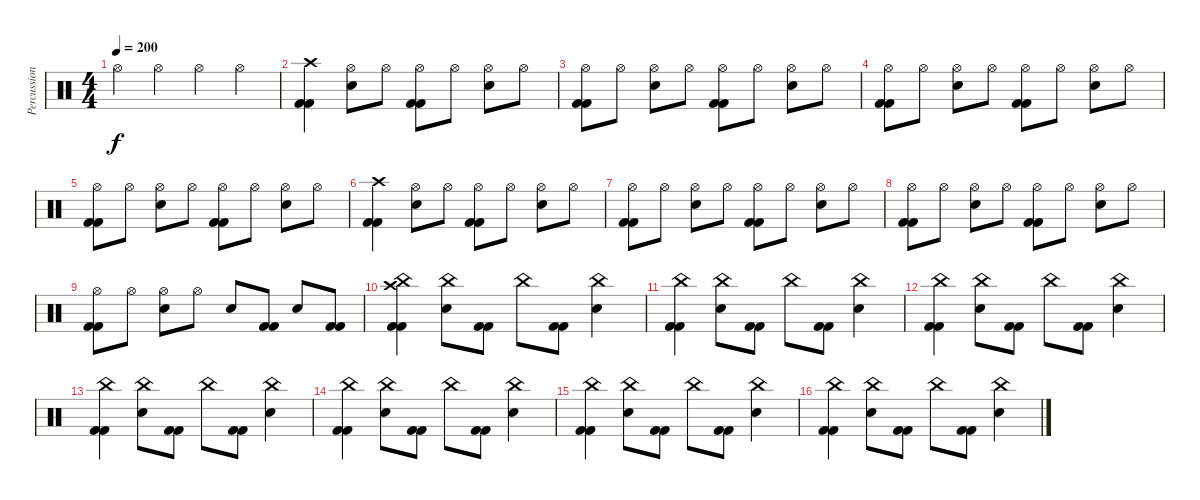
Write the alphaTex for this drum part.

\track ("Percussion" "Percussion") {instrument percussion}
\staff {score}
\articulation defaults
\ts (4 4)
\tempo 200
\clef neutral
\ks c "Hi-Hat (open)".4{dy f} "Hi-Hat (open)".4 "Hi-Hat (open)".4 "Hi-Hat (open)".4
|
("Crash high (hit)" "Kick (hit) 2" "Kick (hit) 2").4 ("Hi-Hat (open)" "Snare (hit) 2").8 "Hi-Hat (open)".8 ("Hi-Hat (open)" "Kick (hit) 2" "Kick (hit) 2").8 "Hi-Hat (open)".8 ("Hi-Hat (open)" "Snare (hit) 2").8 "Hi-Hat (open)".8 |
("Hi-Hat (open)" "Kick (hit) 2" "Kick (hit) 2").8 "Hi-Hat (open)".8 ("Hi-Hat (open)" "Snare (hit) 2").8 "Hi-Hat (open)".8 ("Hi-Hat (open)" "Kick (hit) 2" "Kick (hit) 2").8 "Hi-Hat (open)".8 ("Hi-Hat (open)" "Snare (hit) 2").8 "Hi-Hat (open)".8 |
("Hi-Hat (open)" "Kick (hit) 2" "Kick (hit) 2").8 "Hi-Hat (open)".8 ("Hi-Hat (open)" "Snare (hit) 2").8 "Hi-Hat (open)".8 ("Hi-Hat (open)" "Kick (hit) 2" "Kick (hit) 2").8 "Hi-Hat (open)".8 ("Hi-Hat (open)" "Snare (hit) 2").8 "Hi-Hat (open)".8 |
("Hi-Hat (open)" "Kick (hit) 2" "Kick (hit) 2").8 "Hi-Hat (open)".8 ("Hi-Hat (open)" "Snare (hit) 2").8 "Hi-Hat (open)".8 ("Hi-Hat (open)" "Kick (hit) 2" "Kick (hit) 2").8 "Hi-Hat (open)".8 ("Hi-Hat (open)" "Snare (hit) 2").8 "Hi-Hat (open)".8 |
("Crash high (hit)" "Kick (hit) 2" "Kick (hit) 2").4 ("Hi-Hat (open)" "Snare (hit) 2").8 "Hi-Hat (open)".8 ("Hi-Hat (open)" "Kick (hit) 2" "Kick (hit) 2").8 "Hi-Hat (open)".8 ("Hi-Hat (open)" "Snare (hit) 2").8 "Hi-Hat (open)".8 |
("Hi-Hat (open)" "Kick (hit) 2" "Kick (hit) 2").8 "Hi-Hat (open)".8 ("Hi-Hat (open)" "Snare (hit) 2").8 "Hi-Hat (open)".8 ("Hi-Hat (open)" "Kick (hit) 2" "Kick (hit) 2").8 "Hi-Hat (open)".8 ("Hi-Hat (open)" "Snare (hit) 2").8 "Hi-Hat (open)".8 |
("Hi-Hat (open)" "Kick (hit) 2" "Kick (hit) 2").8 "Hi-Hat (open)".8 ("Hi-Hat (open)" "Snare (hit) 2").8 "Hi-Hat (open)".8 ("Hi-Hat (open)" "Kick (hit) 2" "Kick (hit) 2").8 "Hi-Hat (open)".8 ("Hi-Hat (open)" "Snare (hit) 2").8 "Hi-Hat (open)".8 |
("Hi-Hat (open)" "Kick (hit) 2" "Kick (hit) 2").8 "Hi-Hat (open)".8 ("Hi-Hat (open)" "Snare (hit) 2").8 "Hi-Hat (open)".8 "Snare (hit) 2".8 ("Kick (hit) 2" "Kick (hit) 2").8 "Snare (hit) 2".8 ("Kick (hit) 2" "Kick (hit) 2").8 |
("China (hit)" "Kick (hit) 2" "Kick (hit) 2" "Crash high (hit)").4 ("China (hit)" "Snare (hit) 2").8 ("Kick (hit) 2" "Kick (hit) 2").8 "China (hit)".8 ("Kick (hit) 2" "Kick (hit) 2").8 ("China (hit)" "Snare (hit) 2").4 |
("China (hit)" "Kick (hit) 2" "Kick (hit) 2").4 ("China (hit)" "Snare (hit) 2").8 ("Kick (hit) 2" "Kick (hit) 2").8 "China (hit)".8 ("Kick (hit) 2" "Kick (hit) 2").8 ("China (hit)" "Snare (hit) 2").4 |
("China (hit)" "Kick (hit) 2" "Kick (hit) 2").4 ("China (hit)" "Snare (hit) 2").8 ("Kick (hit) 2" "Kick (hit) 2").8 "China (hit)".8 ("Kick (hit) 2" "Kick (hit) 2").8 ("China (hit)" "Snare (hit) 2").4 |
("China (hit)" "Kick (hit) 2" "Kick (hit) 2").4 ("China (hit)" "Snare (hit) 2").8 ("Kick (hit) 2" "Kick (hit) 2").8 "China (hit)".8 ("Kick (hit) 2" "Kick (hit) 2").8 ("China (hit)" "Snare (hit) 2").4 |
("China (hit)" "Kick (hit) 2" "Kick (hit) 2").4 ("China (hit)" "Snare (hit) 2").8 ("Kick (hit) 2" "Kick (hit) 2").8 "China (hit)".8 ("Kick (hit) 2" "Kick (hit) 2").8 ("China (hit)" "Snare (hit) 2").4 |
("China (hit)" "Kick (hit) 2" "Kick (hit) 2").4 ("China (hit)" "Snare (hit) 2").8 ("Kick (hit) 2" "Kick (hit) 2").8 "China (hit)".8 ("Kick (hit) 2" "Kick (hit) 2").8 ("China (hit)" "Snare (hit) 2").4 |
("China (hit)" "Kick (hit) 2" "Kick (hit) 2").4 ("China (hit)" "Snare (hit) 2").8 ("Kick (hit) 2" "Kick (hit) 2").8 "China (hit)".8 ("Kick (hit) 2" "Kick (hit) 2").8 ("China (hit)" "Snare (hit) 2").4
